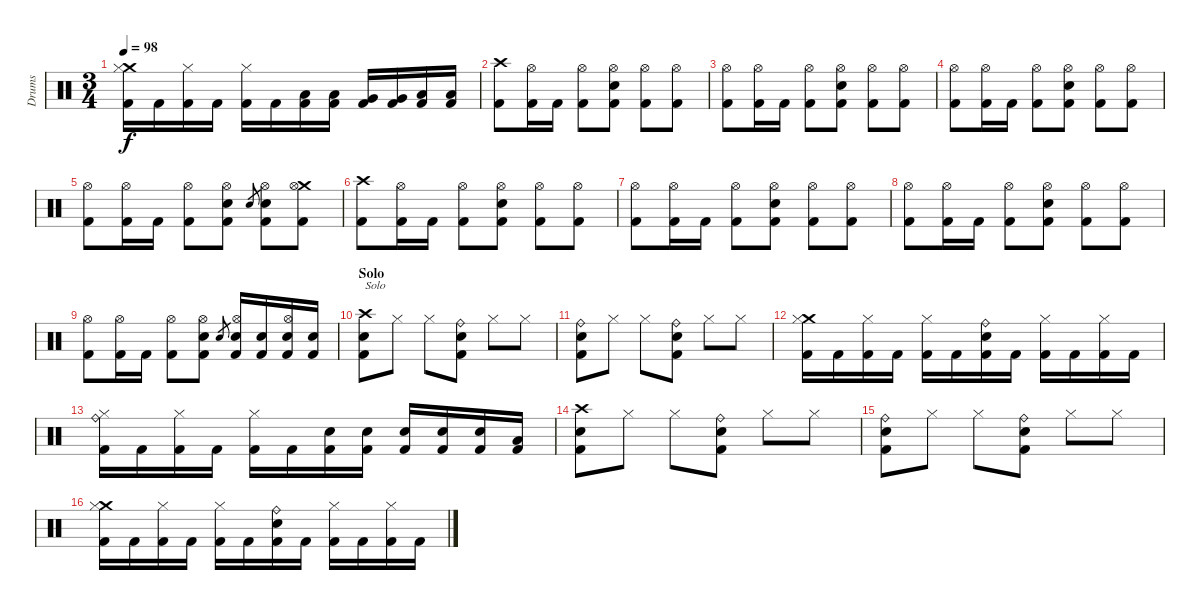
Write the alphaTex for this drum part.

\track ("Drums" "Drums") {instrument percussion}
\staff {score}
\articulation defaults
\ts (3 4)
\tempo 98
\clef neutral
\ks c
("Crash medium (hit)" "Hi-Hat (closed)" "Kick (hit) 2").16{dy f} "Kick (hit) 2".16 ("Hi-Hat (closed)" "Kick (hit) 2").16 "Kick (hit) 2".16 ("Hi-Hat (closed)" "Kick (hit) 2").16 "Kick (hit) 2".16 ("Low Floor Tom (hit)" "Kick (hit) 2").16 ("Low Floor Tom (hit)" "Kick (hit) 2").16 ("Very Low Tom (hit)" "Kick (hit) 2").16 ("Very Low Tom (hit)" "Kick (hit) 2").16 ("Low Tom (hit)" "Kick (hit) 2").16 ("Low Tom (hit)" "Kick (hit) 2").16 |
("Crash high (hit)" "Kick (hit) 2").8 ("Hi-Hat (open)" "Kick (hit) 2").16 "Kick (hit) 2".16 ("Hi-Hat (open)" "Kick (hit) 2").8 ("Hi-Hat (open)" "Electric Snare (hit)" "Kick (hit) 2").8 ("Hi-Hat (open)" "Kick (hit) 2").8 ("Hi-Hat (open)" "Kick (hit) 2").8 |
("Hi-Hat (open)" "Kick (hit) 2").8 ("Hi-Hat (open)" "Kick (hit) 2").16 "Kick (hit) 2".16 ("Hi-Hat (open)" "Kick (hit) 2").8 ("Hi-Hat (open)" "Electric Snare (hit)" "Kick (hit) 2").8 ("Hi-Hat (open)" "Kick (hit) 2").8 ("Hi-Hat (open)" "Kick (hit) 2").8 |
("Hi-Hat (open)" "Kick (hit) 2").8 ("Hi-Hat (open)" "Kick (hit) 2").16 "Kick (hit) 2".16 ("Hi-Hat (open)" "Kick (hit) 2").8 ("Hi-Hat (open)" "Electric Snare (hit)" "Kick (hit) 2").8 ("Hi-Hat (open)" "Kick (hit) 2").8 ("Hi-Hat (open)" "Kick (hit) 2").8 |
("Hi-Hat (open)" "Kick (hit) 2").8 ("Hi-Hat (open)" "Kick (hit) 2").16 "Kick (hit) 2".16 ("Hi-Hat (open)" "Kick (hit) 2").8 ("Hi-Hat (open)" "Electric Snare (hit)" "Kick (hit) 2").8 "Electric Snare (hit)".8{gr} ("Hi-Hat (open)" "Electric Snare (hit)" "Kick (hit) 2").8 ("Crash medium (hit)" "Hi-Hat (open)" "Kick (hit) 2").8 |
("Crash high (hit)" "Kick (hit) 2").8 ("Hi-Hat (open)" "Kick (hit) 2").16 "Kick (hit) 2".16 ("Hi-Hat (open)" "Kick (hit) 2").8 ("Hi-Hat (open)" "Electric Snare (hit)" "Kick (hit) 2").8 ("Hi-Hat (open)" "Kick (hit) 2").8 ("Hi-Hat (open)" "Kick (hit) 2").8 |
("Hi-Hat (open)" "Kick (hit) 2").8 ("Hi-Hat (open)" "Kick (hit) 2").16 "Kick (hit) 2".16 ("Hi-Hat (open)" "Kick (hit) 2").8 ("Hi-Hat (open)" "Electric Snare (hit)" "Kick (hit) 2").8 ("Hi-Hat (open)" "Kick (hit) 2").8 ("Hi-Hat (open)" "Kick (hit) 2").8 |
("Hi-Hat (open)" "Kick (hit) 2").8 ("Hi-Hat (open)" "Kick (hit) 2").16 "Kick (hit) 2".16 ("Hi-Hat (open)" "Kick (hit) 2").8 ("Hi-Hat (open)" "Electric Snare (hit)" "Kick (hit) 2").8 ("Hi-Hat (open)" "Kick (hit) 2").8 ("Hi-Hat (open)" "Kick (hit) 2").8 |
("Hi-Hat (open)" "Kick (hit) 2").8 ("Hi-Hat (open)" "Kick (hit) 2").16 "Kick (hit) 2".16 ("Hi-Hat (open)" "Kick (hit) 2").8 ("Hi-Hat (open)" "Electric Snare (hit)" "Kick (hit) 2").8 "Electric Snare (hit)".8{gr} ("Hi-Hat (open)" "Electric Snare (hit)" "Kick (hit) 2").16 ("Electric Snare (hit)" "Kick (hit) 2").16 ("Hi-Hat (open)" "Electric Snare (hit)" "Kick (hit) 2").16 ("Electric Snare (hit)" "Kick (hit) 2").16 |
\section ("" "Solo")
("Crash high (hit)" "Electric Snare (hit)" "Kick (hit) 2").8{txt "Solo"} "Hi-Hat (closed)".8 "Hi-Hat (closed)".8 ("Ride (bell)" "Electric Snare (hit)" "Kick (hit) 2").8 "Hi-Hat (closed)".8 "Hi-Hat (closed)".8 |
("Ride (bell)" "Electric Snare (hit)" "Kick (hit) 2").8 "Hi-Hat (closed)".8 "Hi-Hat (closed)".8 ("Ride (bell)" "Electric Snare (hit)" "Kick (hit) 2").8 "Hi-Hat (closed)".8 "Hi-Hat (closed)".8 |
("Crash medium (hit)" "Hi-Hat (closed)" "Kick (hit) 2").16 "Kick (hit) 2".16 ("Hi-Hat (closed)" "Kick (hit) 2").16 "Kick (hit) 2".16 ("Hi-Hat (closed)" "Kick (hit) 2").16 "Kick (hit) 2".16 ("Ride (bell)" "Electric Snare (hit)" "Kick (hit) 2").16 "Kick (hit) 2".16 ("Hi-Hat (closed)" "Kick (hit) 2").16 "Kick (hit) 2".16 ("Hi-Hat (closed)" "Kick (hit) 2").16 "Kick (hit) 2".16 |
("Ride (bell)" "Hi-Hat (closed)" "Kick (hit) 2").16 "Kick (hit) 2".16 ("Hi-Hat (closed)" "Kick (hit) 2").16 "Kick (hit) 2".16 ("Hi-Hat (closed)" "Kick (hit) 2").16 "Kick (hit) 2".16 ("Electric Snare (hit)" "Kick (hit) 2").16 ("Electric Snare (hit)" "Kick (hit) 2").16 ("Electric Snare (hit)" "Kick (hit) 2").16 ("Electric Snare (hit)" "Kick (hit) 2").16 ("Electric Snare (hit)" "Kick (hit) 2").16 ("Low Floor Tom (hit)" "Kick (hit) 2").16 |
("Crash high (hit)" "Electric Snare (hit)" "Kick (hit) 2").8 "Hi-Hat (closed)".8 "Hi-Hat (closed)".8 ("Ride (bell)" "Electric Snare (hit)" "Kick (hit) 2").8 "Hi-Hat (closed)".8 "Hi-Hat (closed)".8 |
("Ride (bell)" "Electric Snare (hit)" "Kick (hit) 2").8 "Hi-Hat (closed)".8 "Hi-Hat (closed)".8 ("Ride (bell)" "Electric Snare (hit)" "Kick (hit) 2").8 "Hi-Hat (closed)".8 "Hi-Hat (closed)".8 |
("Crash medium (hit)" "Hi-Hat (closed)" "Kick (hit) 2").16 "Kick (hit) 2".16 ("Hi-Hat (closed)" "Kick (hit) 2").16 "Kick (hit) 2".16 ("Hi-Hat (closed)" "Kick (hit) 2").16 "Kick (hit) 2".16 ("Ride (bell)" "Electric Snare (hit)" "Kick (hit) 2").16 "Kick (hit) 2".16 ("Hi-Hat (closed)" "Kick (hit) 2").16 "Kick (hit) 2".16 ("Hi-Hat (closed)" "Kick (hit) 2").16 "Kick (hit) 2".16
